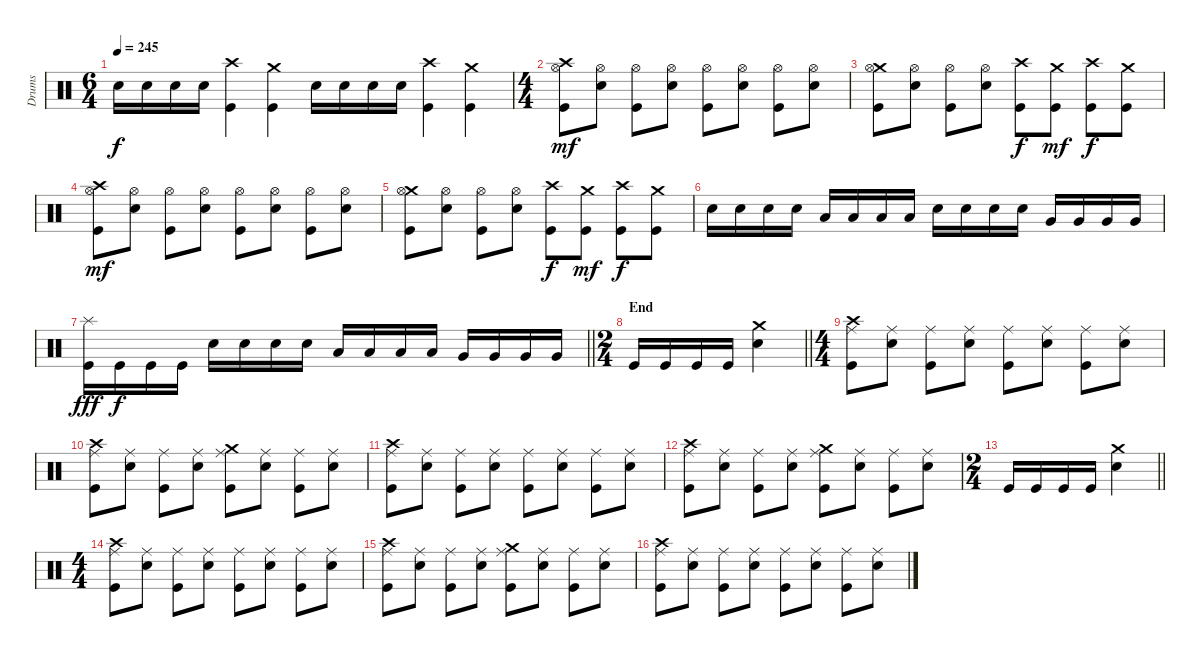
\track ("Drums" "Drums") {instrument percussion}
\staff {score}
\articulation defaults
\ts (6 4)
\tempo 245
\clef neutral
\ks c "Electric Snare (hit)".16{dy f} "Electric Snare (hit)".16 "Electric Snare (hit)".16 "Electric Snare (hit)".16
("Crash high (hit)" "Kick (hit)").4 ("Crash medium (hit)" "Kick (hit)").4 "Electric Snare (hit)".16 "Electric Snare (hit)".16 "Electric Snare (hit)".16 "Electric Snare (hit)".16 ("Crash high (hit)" "Kick (hit)").4 ("Crash medium (hit)" "Kick (hit)").4 |
\ts (4 4)
("Crash high (hit)" "Hi-Hat (open)" "Kick (hit)").8{dy mf} ("Hi-Hat (open)" "Electric Snare (hit)").8 ("Hi-Hat (open)" "Kick (hit)").8 ("Hi-Hat (open)" "Electric Snare (hit)").8 ("Hi-Hat (open)" "Kick (hit)").8 ("Hi-Hat (open)" "Electric Snare (hit)").8 ("Hi-Hat (open)" "Kick (hit)").8 ("Hi-Hat (open)" "Electric Snare (hit)").8 |
("Crash medium (hit)" "Hi-Hat (open)" "Kick (hit)").8 ("Hi-Hat (open)" "Electric Snare (hit)").8 ("Hi-Hat (open)" "Kick (hit)").8 ("Hi-Hat (open)" "Electric Snare (hit)").8 ("Crash high (hit)" "Kick (hit)").8{dy f} ("Crash medium (hit)" "Kick (hit)").8{dy mf} ("Crash high (hit)" "Kick (hit)").8{dy f} ("Crash medium (hit)" "Kick (hit)").8 |
("Crash high (hit)" "Hi-Hat (open)" "Kick (hit)").8{dy mf} ("Hi-Hat (open)" "Electric Snare (hit)").8 ("Hi-Hat (open)" "Kick (hit)").8 ("Hi-Hat (open)" "Electric Snare (hit)").8 ("Hi-Hat (open)" "Kick (hit)").8 ("Hi-Hat (open)" "Electric Snare (hit)").8 ("Hi-Hat (open)" "Kick (hit)").8 ("Hi-Hat (open)" "Electric Snare (hit)").8 |
("Crash medium (hit)" "Hi-Hat (open)" "Kick (hit)").8 ("Hi-Hat (open)" "Electric Snare (hit)").8 ("Hi-Hat (open)" "Kick (hit)").8 ("Hi-Hat (open)" "Electric Snare (hit)").8 ("Crash high (hit)" "Kick (hit)").8{dy f} ("Crash medium (hit)" "Kick (hit)").8{dy mf} ("Crash high (hit)" "Kick (hit)").8{dy f} ("Crash medium (hit)" "Kick (hit)").8 |
"Electric Snare (hit)".16 "Electric Snare (hit)".16 "Electric Snare (hit)".16 "Electric Snare (hit)".16 "Low Tom (hit)".16 "Low Tom (hit)".16 "Low Tom (hit)".16 "Low Tom (hit)".16 "Electric Snare (hit)".16 "Electric Snare (hit)".16 "Electric Snare (hit)".16 "Electric Snare (hit)".16 "Very Low Tom (hit)".16 "Very Low Tom (hit)".16 "Very Low Tom (hit)".16 "Very Low Tom (hit)".16 |
\barLineRight lightlight
("Splash (hit)" "Kick (hit)").16{dy fff} "Kick (hit)".16{dy f} "Kick (hit)".16 "Kick (hit)".16 "Electric Snare (hit)".16 "Electric Snare (hit)".16 "Electric Snare (hit)".16 "Electric Snare (hit)".16 "Low Tom (hit)".16 "Low Tom (hit)".16 "Low Tom (hit)".16 "Low Tom (hit)".16 "Very Low Tom (hit)".16 "Very Low Tom (hit)".16 "Very Low Tom (hit)".16 "Very Low Tom (hit)".16 |
\ts (2 4)
\section ("" "End")
\barLineRight lightlight "Kick (hit)".16 "Kick (hit)".16 "Kick (hit)".16 "Kick (hit)".16
("Crash medium (hit)" "Electric Snare (hit)").4 |
\ts (4 4)
("Crash high (hit)" "Ride (middle)" "Kick (hit)").8 ("Ride (middle)" "Electric Snare (hit)").8 ("Ride (middle)" "Kick (hit)").8 ("Ride (middle)" "Electric Snare (hit)").8 ("Ride (middle)" "Kick (hit)").8 ("Ride (middle)" "Electric Snare (hit)").8 ("Ride (middle)" "Kick (hit)").8 ("Ride (middle)" "Electric Snare (hit)").8 |
("Crash high (hit)" "Ride (middle)" "Kick (hit)").8 ("Ride (middle)" "Electric Snare (hit)").8 ("Ride (middle)" "Kick (hit)").8 ("Ride (middle)" "Electric Snare (hit)").8 ("Crash medium (hit)" "Ride (middle)" "Kick (hit)").8 ("Ride (middle)" "Electric Snare (hit)").8 ("Ride (middle)" "Kick (hit)").8 ("Ride (middle)" "Electric Snare (hit)").8 |
("Crash high (hit)" "Ride (middle)" "Kick (hit)").8 ("Ride (middle)" "Electric Snare (hit)").8 ("Ride (middle)" "Kick (hit)").8 ("Ride (middle)" "Electric Snare (hit)").8 ("Ride (middle)" "Kick (hit)").8 ("Ride (middle)" "Electric Snare (hit)").8 ("Ride (middle)" "Kick (hit)").8 ("Ride (middle)" "Electric Snare (hit)").8 |
("Crash high (hit)" "Ride (middle)" "Kick (hit)").8 ("Ride (middle)" "Electric Snare (hit)").8 ("Ride (middle)" "Kick (hit)").8 ("Ride (middle)" "Electric Snare (hit)").8 ("Crash medium (hit)" "Ride (middle)" "Kick (hit)").8 ("Ride (middle)" "Electric Snare (hit)").8 ("Ride (middle)" "Kick (hit)").8 ("Ride (middle)" "Electric Snare (hit)").8 |
\ts (2 4)
\barLineRight lightlight "Kick (hit)".16 "Kick (hit)".16 "Kick (hit)".16 "Kick (hit)".16
("Crash medium (hit)" "Electric Snare (hit)").4 |
\ts (4 4)
("Crash high (hit)" "Ride (middle)" "Kick (hit)").8 ("Ride (middle)" "Electric Snare (hit)").8 ("Ride (middle)" "Kick (hit)").8 ("Ride (middle)" "Electric Snare (hit)").8 ("Ride (middle)" "Kick (hit)").8 ("Ride (middle)" "Electric Snare (hit)").8 ("Ride (middle)" "Kick (hit)").8 ("Ride (middle)" "Electric Snare (hit)").8 |
("Crash high (hit)" "Ride (middle)" "Kick (hit)").8 ("Ride (middle)" "Electric Snare (hit)").8 ("Ride (middle)" "Kick (hit)").8 ("Ride (middle)" "Electric Snare (hit)").8 ("Crash medium (hit)" "Ride (middle)" "Kick (hit)").8 ("Ride (middle)" "Electric Snare (hit)").8 ("Ride (middle)" "Kick (hit)").8 ("Ride (middle)" "Electric Snare (hit)").8 |
("Crash high (hit)" "Ride (middle)" "Kick (hit)").8 ("Ride (middle)" "Electric Snare (hit)").8 ("Ride (middle)" "Kick (hit)").8 ("Ride (middle)" "Electric Snare (hit)").8 ("Ride (middle)" "Kick (hit)").8 ("Ride (middle)" "Electric Snare (hit)").8 ("Ride (middle)" "Kick (hit)").8 ("Ride (middle)" "Electric Snare (hit)").8
